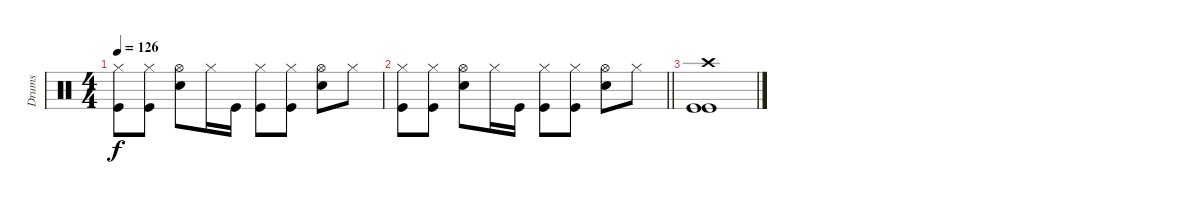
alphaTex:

\track ("Drums" "Drums") {instrument percussion}
\staff {score}
\articulation defaults
\ts (4 4)
\tempo 126
\clef neutral
\ks c
("Hi-Hat (closed)" "Kick (hit)").8{dy f} ("Hi-Hat (closed)" "Kick (hit)").8 ("Hi-Hat (open)" "Snare (hit) 2").8 "Hi-Hat (closed)".16 "Kick (hit)".16 ("Hi-Hat (closed)" "Kick (hit)").8 ("Hi-Hat (closed)" "Kick (hit)").8 ("Hi-Hat (open)" "Snare (hit) 2").8 "Hi-Hat (closed)".8 |
\barLineRight lightlight
("Hi-Hat (closed)" "Kick (hit)").8 ("Hi-Hat (closed)" "Kick (hit)").8 ("Hi-Hat (open)" "Snare (hit) 2").8 "Hi-Hat (closed)".16 "Kick (hit)".16 ("Hi-Hat (closed)" "Kick (hit)").8 ("Hi-Hat (closed)" "Kick (hit)").8 ("Hi-Hat (open)" "Snare (hit) 2").8 "Hi-Hat (closed)".8 |
("Kick (hit)" "Kick (hit)" "Crash high (hit)").1
